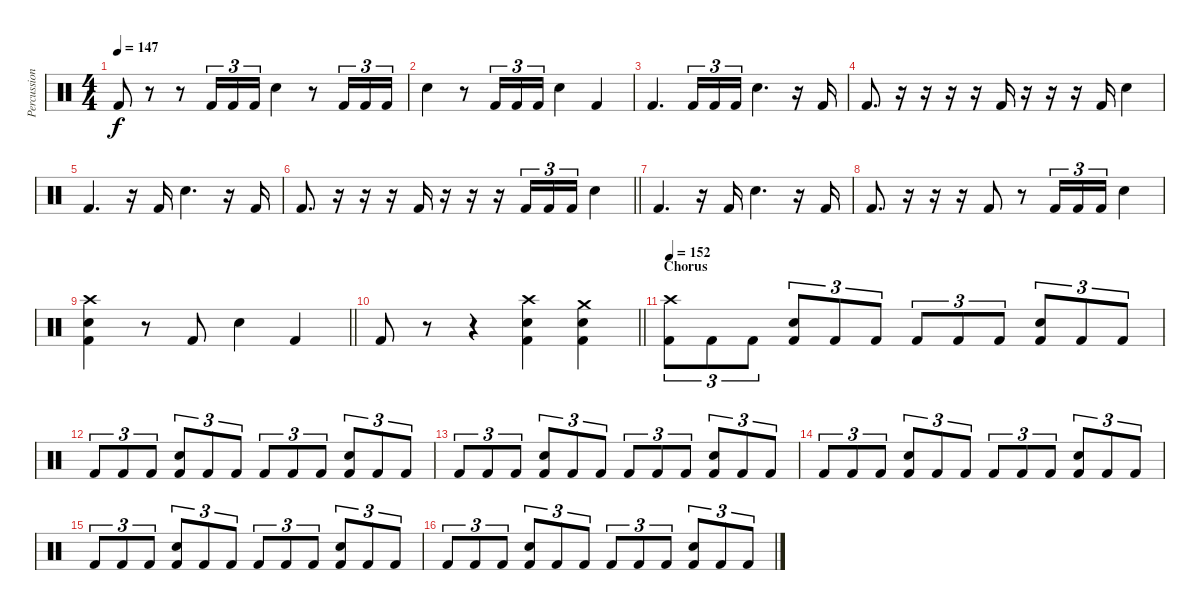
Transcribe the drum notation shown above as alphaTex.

\track ("Percussion" "Percussion") {instrument percussion}
\staff {score}
\articulation defaults
\ts (4 4)
\tempo 147
\clef neutral
\ks c "Kick (hit) 2".8{dy f}
r.8 r.8 "Kick (hit) 2".16{tu (3 2)} "Kick (hit) 2".16{tu (3 2)} "Kick (hit) 2".16{tu (3 2)} "Electric Snare (hit)".4 r.8 "Kick (hit) 2".16{tu (3 2)} "Kick (hit) 2".16{tu (3 2)} "Kick (hit) 2".16{tu (3 2)} |
"Electric Snare (hit)".4 r.8 "Kick (hit) 2".16{tu (3 2)} "Kick (hit) 2".16{tu (3 2)} "Kick (hit) 2".16{tu (3 2)} "Electric Snare (hit)".4 "Kick (hit) 2".4 |
"Kick (hit) 2".4{d} "Kick (hit) 2".16{tu (3 2)} "Kick (hit) 2".16{tu (3 2)} "Kick (hit) 2".16{tu (3 2)} "Electric Snare (hit)".4{d} r.16 "Kick (hit) 2".16 |
"Kick (hit) 2".8{d} r.16 r.16 r.16 r.16 "Kick (hit) 2".16 r.16 r.16 r.16 "Kick (hit) 2".16 "Electric Snare (hit)".4 |
"Kick (hit) 2".4{d} r.16 "Kick (hit) 2".16 "Electric Snare (hit)".4{d} r.16 "Kick (hit) 2".16 |
\barLineRight lightlight "Kick (hit) 2".8{d}
r.16 r.16 r.16 "Kick (hit) 2".16 r.16 r.16 r.16 "Kick (hit) 2".16{tu (3 2)} "Kick (hit) 2".16{tu (3 2)} "Kick (hit) 2".16{tu (3 2)} "Electric Snare (hit)".4 |
"Kick (hit) 2".4{d} r.16 "Kick (hit) 2".16 "Electric Snare (hit)".4{d} r.16 "Kick (hit) 2".16 |
"Kick (hit) 2".8{d} r.16 r.16 r.16 "Kick (hit) 2".8 r.8 "Kick (hit) 2".16{tu (3 2)} "Kick (hit) 2".16{tu (3 2)} "Kick (hit) 2".16{tu (3 2)} "Electric Snare (hit)".4 |
\barLineRight lightlight
("Kick (hit) 2" "Electric Snare (hit)" "Crash high (hit)").4 r.8 "Kick (hit) 2".8 "Electric Snare (hit)".4 "Kick (hit) 2".4 |
\barLineRight lightlight "Kick (hit) 2".8
r.8 r.4 ("Kick (hit) 2" "Electric Snare (hit)" "Crash high (hit)").4 ("Kick (hit) 2" "Electric Snare (hit)" "Crash medium (hit)").4 |
\section ("" "Chorus")
\tempo 152
("Kick (hit) 2" "Crash high (hit)").8{tu (3 2)} "Kick (hit) 2".8{tu (3 2)} "Kick (hit) 2".8{tu (3 2)} ("Kick (hit) 2" "Electric Snare (hit)").8{tu (3 2)} "Kick (hit) 2".8{tu (3 2)} "Kick (hit) 2".8{tu (3 2)} "Kick (hit) 2".8{tu (3 2)} "Kick (hit) 2".8{tu (3 2)} "Kick (hit) 2".8{tu (3 2)} ("Kick (hit) 2" "Electric Snare (hit)").8{tu (3 2)} "Kick (hit) 2".8{tu (3 2)} "Kick (hit) 2".8{tu (3 2)} |
"Kick (hit) 2".8{tu (3 2)} "Kick (hit) 2".8{tu (3 2)} "Kick (hit) 2".8{tu (3 2)} ("Kick (hit) 2" "Electric Snare (hit)").8{tu (3 2)} "Kick (hit) 2".8{tu (3 2)} "Kick (hit) 2".8{tu (3 2)} "Kick (hit) 2".8{tu (3 2)} "Kick (hit) 2".8{tu (3 2)} "Kick (hit) 2".8{tu (3 2)} ("Kick (hit) 2" "Electric Snare (hit)").8{tu (3 2)} "Kick (hit) 2".8{tu (3 2)} "Kick (hit) 2".8{tu (3 2)} |
"Kick (hit) 2".8{tu (3 2)} "Kick (hit) 2".8{tu (3 2)} "Kick (hit) 2".8{tu (3 2)} ("Kick (hit) 2" "Electric Snare (hit)").8{tu (3 2)} "Kick (hit) 2".8{tu (3 2)} "Kick (hit) 2".8{tu (3 2)} "Kick (hit) 2".8{tu (3 2)} "Kick (hit) 2".8{tu (3 2)} "Kick (hit) 2".8{tu (3 2)} ("Kick (hit) 2" "Electric Snare (hit)").8{tu (3 2)} "Kick (hit) 2".8{tu (3 2)} "Kick (hit) 2".8{tu (3 2)} |
"Kick (hit) 2".8{tu (3 2)} "Kick (hit) 2".8{tu (3 2)} "Kick (hit) 2".8{tu (3 2)} ("Kick (hit) 2" "Electric Snare (hit)").8{tu (3 2)} "Kick (hit) 2".8{tu (3 2)} "Kick (hit) 2".8{tu (3 2)} "Kick (hit) 2".8{tu (3 2)} "Kick (hit) 2".8{tu (3 2)} "Kick (hit) 2".8{tu (3 2)} ("Kick (hit) 2" "Electric Snare (hit)").8{tu (3 2)} "Kick (hit) 2".8{tu (3 2)} "Kick (hit) 2".8{tu (3 2)} |
"Kick (hit) 2".8{tu (3 2)} "Kick (hit) 2".8{tu (3 2)} "Kick (hit) 2".8{tu (3 2)} ("Kick (hit) 2" "Electric Snare (hit)").8{tu (3 2)} "Kick (hit) 2".8{tu (3 2)} "Kick (hit) 2".8{tu (3 2)} "Kick (hit) 2".8{tu (3 2)} "Kick (hit) 2".8{tu (3 2)} "Kick (hit) 2".8{tu (3 2)} ("Kick (hit) 2" "Electric Snare (hit)").8{tu (3 2)} "Kick (hit) 2".8{tu (3 2)} "Kick (hit) 2".8{tu (3 2)} |
"Kick (hit) 2".8{tu (3 2)} "Kick (hit) 2".8{tu (3 2)} "Kick (hit) 2".8{tu (3 2)} ("Kick (hit) 2" "Electric Snare (hit)").8{tu (3 2)} "Kick (hit) 2".8{tu (3 2)} "Kick (hit) 2".8{tu (3 2)} "Kick (hit) 2".8{tu (3 2)} "Kick (hit) 2".8{tu (3 2)} "Kick (hit) 2".8{tu (3 2)} ("Kick (hit) 2" "Electric Snare (hit)").8{tu (3 2)} "Kick (hit) 2".8{tu (3 2)} "Kick (hit) 2".8{tu (3 2)}
